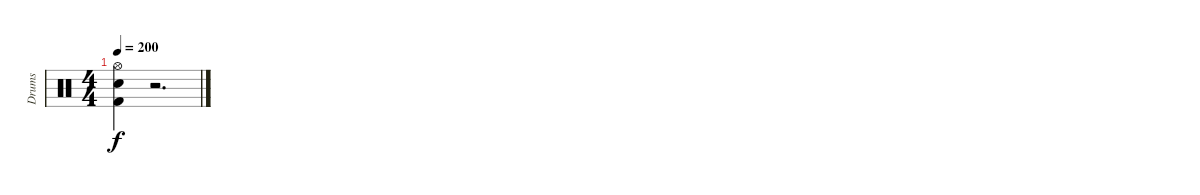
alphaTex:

\track ("Drums" "Drums") {instrument percussion}
\staff {score}
\articulation defaults
\ts (4 4)
\tempo 200
\clef neutral
\ks c
("Hi-Hat (open)" "Snare (hit) 2" "Kick (hit) 2").4{dy f} r.2{d}
